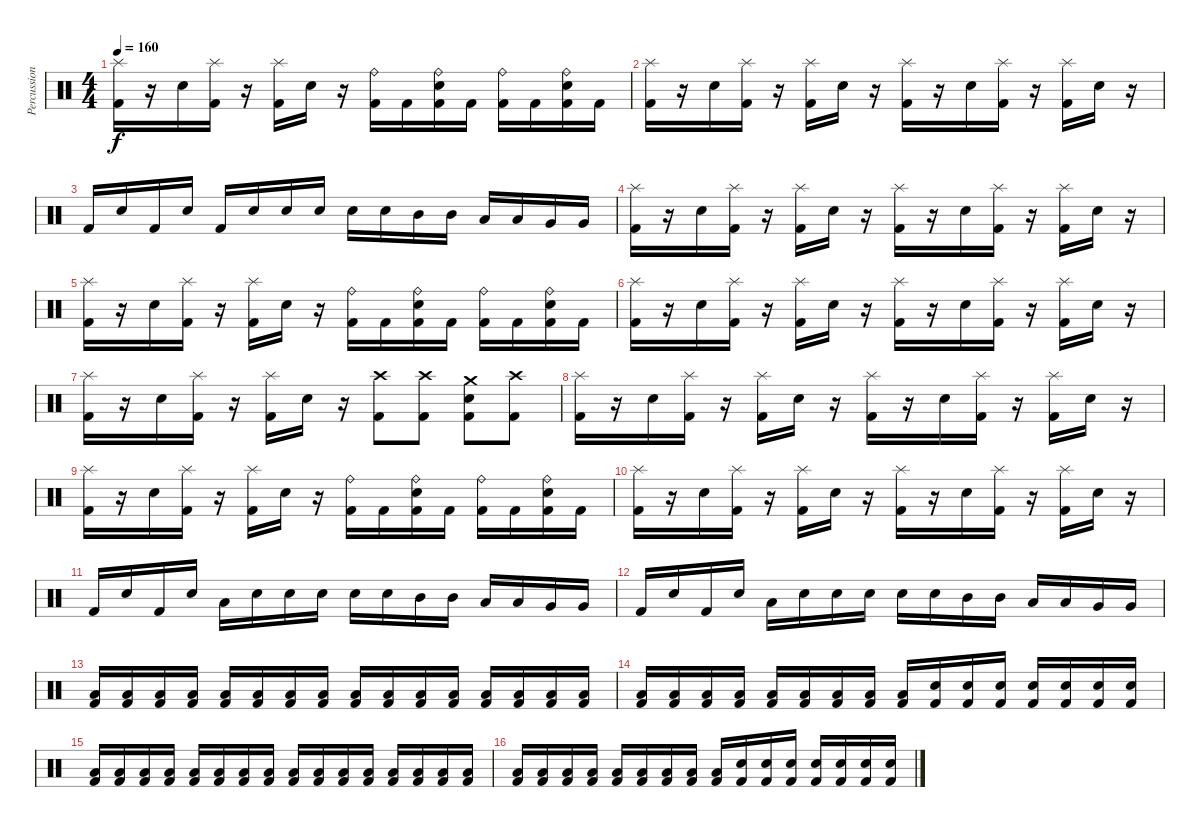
\track ("Percussion" "Percussion") {instrument percussion}
\staff {score}
\articulation defaults
\ts (4 4)
\tempo 160
\clef neutral
\ks c
("Splash (hit)" "Kick (hit) 2").16{dy f} r.16 "Snare (hit) 2".16 ("Splash (hit)" "Kick (hit) 2").16 r.16 ("Splash (hit)" "Kick (hit) 2").16 "Snare (hit) 2".16 r.16 ("Ride (bell)" "Kick (hit) 2").16 "Kick (hit) 2".16 ("Ride (bell)" "Snare (hit) 2" "Kick (hit) 2").16 "Kick (hit) 2".16 ("Ride (bell)" "Kick (hit) 2").16 "Kick (hit) 2".16 ("Ride (bell)" "Snare (hit) 2" "Kick (hit) 2").16 "Kick (hit) 2".16 |
("Splash (hit)" "Kick (hit) 2").16 r.16 "Snare (hit) 2".16 ("Splash (hit)" "Kick (hit) 2").16 r.16 ("Splash (hit)" "Kick (hit) 2").16 "Snare (hit) 2".16 r.16 ("Splash (hit)" "Kick (hit) 2").16 r.16 "Snare (hit) 2".16 ("Splash (hit)" "Kick (hit) 2").16 r.16 ("Splash (hit)" "Kick (hit) 2").16 "Snare (hit) 2".16 r.16 |
"Kick (hit) 2".16 "Snare (hit) 2".16 "Kick (hit) 2".16 "Snare (hit) 2".16 "Kick (hit) 2".16 "Snare (hit) 2".16 "Snare (hit) 2".16 "Snare (hit) 2".16 "Snare (hit) 2".16 "Snare (hit) 2".16 "Mid Tom (hit)".16 "Mid Tom (hit)".16 "Low Tom (hit)".16 "Low Tom (hit)".16 "Very Low Tom (hit)".16 "Very Low Tom (hit)".16 |
("Splash (hit)" "Kick (hit) 2").16 r.16 "Snare (hit) 2".16 ("Splash (hit)" "Kick (hit) 2").16 r.16 ("Splash (hit)" "Kick (hit) 2").16 "Snare (hit) 2".16 r.16 ("Splash (hit)" "Kick (hit) 2").16 r.16 "Snare (hit) 2".16 ("Splash (hit)" "Kick (hit) 2").16 r.16 ("Splash (hit)" "Kick (hit) 2").16 "Snare (hit) 2".16 r.16 |
("Splash (hit)" "Kick (hit) 2").16 r.16 "Snare (hit) 2".16 ("Splash (hit)" "Kick (hit) 2").16 r.16 ("Splash (hit)" "Kick (hit) 2").16 "Snare (hit) 2".16 r.16 ("Ride (bell)" "Kick (hit) 2").16 "Kick (hit) 2".16 ("Ride (bell)" "Snare (hit) 2" "Kick (hit) 2").16 "Kick (hit) 2".16 ("Ride (bell)" "Kick (hit) 2").16 "Kick (hit) 2".16 ("Ride (bell)" "Snare (hit) 2" "Kick (hit) 2").16 "Kick (hit) 2".16 |
("Splash (hit)" "Kick (hit) 2").16 r.16 "Snare (hit) 2".16 ("Splash (hit)" "Kick (hit) 2").16 r.16 ("Splash (hit)" "Kick (hit) 2").16 "Snare (hit) 2".16 r.16 ("Splash (hit)" "Kick (hit) 2").16 r.16 "Snare (hit) 2".16 ("Splash (hit)" "Kick (hit) 2").16 r.16 ("Splash (hit)" "Kick (hit) 2").16 "Snare (hit) 2".16 r.16 |
("Splash (hit)" "Kick (hit) 2").16 r.16 "Snare (hit) 2".16 ("Splash (hit)" "Kick (hit) 2").16 r.16 ("Splash (hit)" "Kick (hit) 2").16 "Snare (hit) 2".16 r.16 ("Crash high (hit)" "Kick (hit) 2").8 ("Crash high (hit)" "Kick (hit) 2").8 ("Crash medium (hit)" "Snare (hit) 2" "Kick (hit) 2").8 ("Crash high (hit)" "Kick (hit) 2").8 |
("Splash (hit)" "Kick (hit) 2").16 r.16 "Snare (hit) 2".16 ("Splash (hit)" "Kick (hit) 2").16 r.16 ("Splash (hit)" "Kick (hit) 2").16 "Snare (hit) 2".16 r.16 ("Splash (hit)" "Kick (hit) 2").16 r.16 "Snare (hit) 2".16 ("Splash (hit)" "Kick (hit) 2").16 r.16 ("Splash (hit)" "Kick (hit) 2").16 "Snare (hit) 2".16 r.16 |
("Splash (hit)" "Kick (hit) 2").16 r.16 "Snare (hit) 2".16 ("Splash (hit)" "Kick (hit) 2").16 r.16 ("Splash (hit)" "Kick (hit) 2").16 "Snare (hit) 2".16 r.16 ("Ride (bell)" "Kick (hit) 2").16 "Kick (hit) 2".16 ("Ride (bell)" "Snare (hit) 2" "Kick (hit) 2").16 "Kick (hit) 2".16 ("Ride (bell)" "Kick (hit) 2").16 "Kick (hit) 2".16 ("Ride (bell)" "Snare (hit) 2" "Kick (hit) 2").16 "Kick (hit) 2".16 |
("Splash (hit)" "Kick (hit) 2").16 r.16 "Snare (hit) 2".16 ("Splash (hit)" "Kick (hit) 2").16 r.16 ("Splash (hit)" "Kick (hit) 2").16 "Snare (hit) 2".16 r.16 ("Splash (hit)" "Kick (hit) 2").16 r.16 "Snare (hit) 2".16 ("Splash (hit)" "Kick (hit) 2").16 r.16 ("Splash (hit)" "Kick (hit) 2").16 "Snare (hit) 2".16 r.16 |
"Kick (hit) 2".16 "Snare (hit) 2".16 "Kick (hit) 2".16 "Snare (hit) 2".16 "Low Floor Tom (hit)".16 "Snare (hit) 2".16 "Snare (hit) 2".16 "Snare (hit) 2".16 "Snare (hit) 2".16 "Snare (hit) 2".16 "Mid Tom (hit)".16 "Mid Tom (hit)".16 "Low Tom (hit)".16 "Low Tom (hit)".16 "Very Low Tom (hit)".16 "Very Low Tom (hit)".16 |
"Kick (hit) 2".16 "Snare (hit) 2".16 "Kick (hit) 2".16 "Snare (hit) 2".16 "Low Floor Tom (hit)".16 "Snare (hit) 2".16 "Snare (hit) 2".16 "Snare (hit) 2".16 "Snare (hit) 2".16 "Snare (hit) 2".16 "Mid Tom (hit)".16 "Mid Tom (hit)".16 "Low Tom (hit)".16 "Low Tom (hit)".16 "Very Low Tom (hit)".16 "Very Low Tom (hit)".16 |
("Low Floor Tom (hit)" "Kick (hit) 2").16 ("Low Floor Tom (hit)" "Kick (hit) 2").16 ("Low Floor Tom (hit)" "Kick (hit) 2").16 ("Low Floor Tom (hit)" "Kick (hit) 2").16 ("Low Floor Tom (hit)" "Kick (hit) 2").16 ("Low Floor Tom (hit)" "Kick (hit) 2").16 ("Low Floor Tom (hit)" "Kick (hit) 2").16 ("Low Floor Tom (hit)" "Kick (hit) 2").16 ("Low Floor Tom (hit)" "Kick (hit) 2").16 ("Low Floor Tom (hit)" "Kick (hit) 2").16 ("Low Floor Tom (hit)" "Kick (hit) 2").16 ("Low Floor Tom (hit)" "Kick (hit) 2").16 ("Low Floor Tom (hit)" "Kick (hit) 2").16 ("Low Floor Tom (hit)" "Kick (hit) 2").16 ("Low Floor Tom (hit)" "Kick (hit) 2").16 ("Low Floor Tom (hit)" "Kick (hit) 2").16 |
("Low Floor Tom (hit)" "Kick (hit) 2").16 ("Low Floor Tom (hit)" "Kick (hit) 2").16 ("Low Floor Tom (hit)" "Kick (hit) 2").16 ("Low Floor Tom (hit)" "Kick (hit) 2").16 ("Low Floor Tom (hit)" "Kick (hit) 2").16 ("Low Floor Tom (hit)" "Kick (hit) 2").16 ("Low Floor Tom (hit)" "Kick (hit) 2").16 ("Low Floor Tom (hit)" "Kick (hit) 2").16 ("Low Floor Tom (hit)" "Kick (hit) 2").16 ("Snare (hit) 2" "Kick (hit) 2").16 ("Snare (hit) 2" "Kick (hit) 2").16 ("Snare (hit) 2" "Kick (hit) 2").16 ("Snare (hit) 2" "Kick (hit) 2").16 ("Snare (hit) 2" "Kick (hit) 2").16 ("Snare (hit) 2" "Kick (hit) 2").16 ("Snare (hit) 2" "Kick (hit) 2").16 |
("Low Floor Tom (hit)" "Kick (hit) 2").16 ("Low Floor Tom (hit)" "Kick (hit) 2").16 ("Low Floor Tom (hit)" "Kick (hit) 2").16 ("Low Floor Tom (hit)" "Kick (hit) 2").16 ("Low Floor Tom (hit)" "Kick (hit) 2").16 ("Low Floor Tom (hit)" "Kick (hit) 2").16 ("Low Floor Tom (hit)" "Kick (hit) 2").16 ("Low Floor Tom (hit)" "Kick (hit) 2").16 ("Low Floor Tom (hit)" "Kick (hit) 2").16 ("Low Floor Tom (hit)" "Kick (hit) 2").16 ("Low Floor Tom (hit)" "Kick (hit) 2").16 ("Low Floor Tom (hit)" "Kick (hit) 2").16 ("Low Floor Tom (hit)" "Kick (hit) 2").16 ("Low Floor Tom (hit)" "Kick (hit) 2").16 ("Low Floor Tom (hit)" "Kick (hit) 2").16 ("Low Floor Tom (hit)" "Kick (hit) 2").16 |
("Low Floor Tom (hit)" "Kick (hit) 2").16 ("Low Floor Tom (hit)" "Kick (hit) 2").16 ("Low Floor Tom (hit)" "Kick (hit) 2").16 ("Low Floor Tom (hit)" "Kick (hit) 2").16 ("Low Floor Tom (hit)" "Kick (hit) 2").16 ("Low Floor Tom (hit)" "Kick (hit) 2").16 ("Low Floor Tom (hit)" "Kick (hit) 2").16 ("Low Floor Tom (hit)" "Kick (hit) 2").16 ("Low Floor Tom (hit)" "Kick (hit) 2").16 ("Snare (hit) 2" "Kick (hit) 2").16 ("Snare (hit) 2" "Kick (hit) 2").16 ("Snare (hit) 2" "Kick (hit) 2").16 ("Snare (hit) 2" "Kick (hit) 2").16 ("Snare (hit) 2" "Kick (hit) 2").16 ("Snare (hit) 2" "Kick (hit) 2").16 ("Snare (hit) 2" "Kick (hit) 2").16
